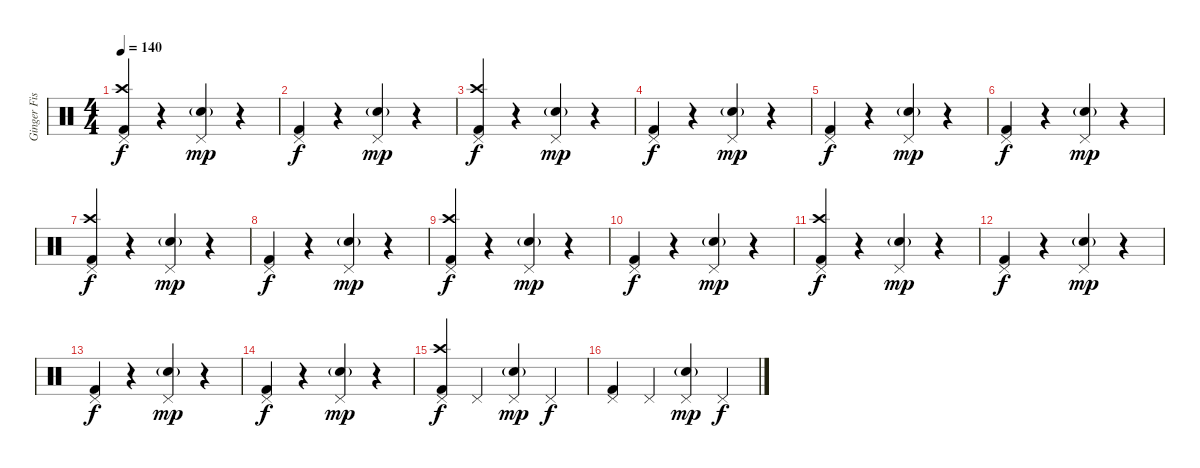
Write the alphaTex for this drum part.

\track ("Ginger Fish" "Ginger Fis") {instrument percussion}
\staff {score}
\articulation defaults
\ts (4 4)
\tempo 140
\clef neutral
\ks c
("Pedal Hi-Hat (hit)" "Crash high (hit)" "Kick (hit) 2").4{dy f} r.4 ("Pedal Hi-Hat (hit)" "Electric Snare (hit)"{g}).4{dy mp} r.4 |
("Pedal Hi-Hat (hit)" "Kick (hit) 2").4{dy f} r.4 ("Pedal Hi-Hat (hit)" "Electric Snare (hit)"{g}).4{dy mp} r.4 |
("Pedal Hi-Hat (hit)" "Crash high (hit)" "Kick (hit) 2").4{dy f} r.4 ("Pedal Hi-Hat (hit)" "Electric Snare (hit)"{g}).4{dy mp} r.4 |
("Pedal Hi-Hat (hit)" "Kick (hit) 2").4{dy f} r.4 ("Pedal Hi-Hat (hit)" "Electric Snare (hit)"{g}).4{dy mp} r.4 |
("Pedal Hi-Hat (hit)" "Kick (hit) 2").4{dy f} r.4 ("Pedal Hi-Hat (hit)" "Electric Snare (hit)"{g}).4{dy mp} r.4 |
("Pedal Hi-Hat (hit)" "Kick (hit) 2").4{dy f} r.4 ("Pedal Hi-Hat (hit)" "Electric Snare (hit)"{g}).4{dy mp} r.4 |
("Pedal Hi-Hat (hit)" "Crash high (hit)" "Kick (hit) 2").4{dy f} r.4 ("Pedal Hi-Hat (hit)" "Electric Snare (hit)"{g}).4{dy mp} r.4 |
("Pedal Hi-Hat (hit)" "Kick (hit) 2").4{dy f} r.4 ("Pedal Hi-Hat (hit)" "Electric Snare (hit)"{g}).4{dy mp} r.4 |
("Pedal Hi-Hat (hit)" "Crash high (hit)" "Kick (hit) 2").4{dy f} r.4 ("Pedal Hi-Hat (hit)" "Electric Snare (hit)"{g}).4{dy mp} r.4 |
("Pedal Hi-Hat (hit)" "Kick (hit) 2").4{dy f} r.4 ("Pedal Hi-Hat (hit)" "Electric Snare (hit)"{g}).4{dy mp} r.4 |
("Pedal Hi-Hat (hit)" "Crash high (hit)" "Kick (hit) 2").4{dy f} r.4 ("Pedal Hi-Hat (hit)" "Electric Snare (hit)"{g}).4{dy mp} r.4 |
("Pedal Hi-Hat (hit)" "Kick (hit) 2").4{dy f} r.4 ("Pedal Hi-Hat (hit)" "Electric Snare (hit)"{g}).4{dy mp} r.4 |
("Pedal Hi-Hat (hit)" "Kick (hit) 2").4{dy f} r.4 ("Pedal Hi-Hat (hit)" "Electric Snare (hit)"{g}).4{dy mp} r.4 |
("Pedal Hi-Hat (hit)" "Kick (hit) 2").4{dy f} r.4 ("Pedal Hi-Hat (hit)" "Electric Snare (hit)"{g}).4{dy mp} r.4 |
("Pedal Hi-Hat (hit)" "Crash high (hit)" "Kick (hit) 2").4{dy f} "Pedal Hi-Hat (hit)".4 ("Pedal Hi-Hat (hit)" "Electric Snare (hit)"{g}).4{dy mp} "Pedal Hi-Hat (hit)".4{dy f} |
("Pedal Hi-Hat (hit)" "Kick (hit) 2").4 "Pedal Hi-Hat (hit)".4 ("Pedal Hi-Hat (hit)" "Electric Snare (hit)"{g}).4{dy mp} "Pedal Hi-Hat (hit)".4{dy f}
